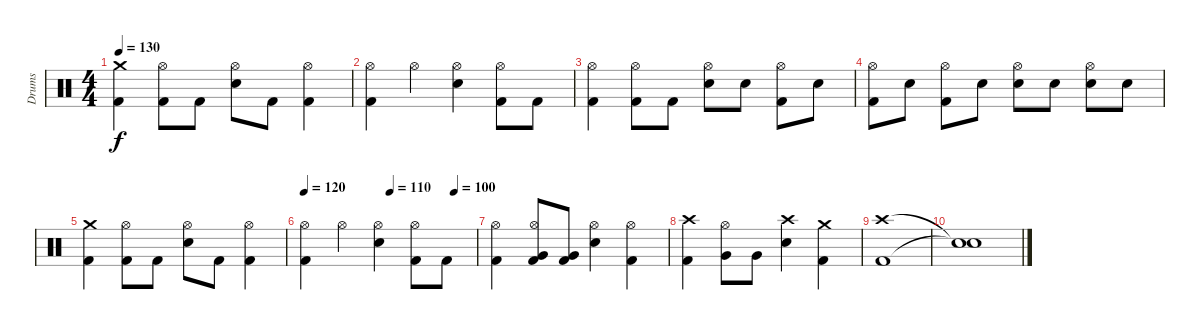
\track ("Drums" "Drums") {instrument percussion}
\staff {score}
\articulation defaults
\ts (4 4)
\tempo 130
\clef neutral
\ks c
("Crash medium (hit)" "Kick (hit) 2").4{dy f} ("Hi-Hat (open)" "Kick (hit) 2").8 "Kick (hit) 2".8 ("Hi-Hat (open)" "Electric Snare (hit)").8 "Kick (hit) 2".8 ("Hi-Hat (open)" "Kick (hit) 2").4 |
("Hi-Hat (open)" "Kick (hit) 2").4 "Hi-Hat (open)".4 ("Hi-Hat (open)" "Electric Snare (hit)").4 ("Hi-Hat (open)" "Kick (hit) 2").8 "Kick (hit) 2".8 |
("Hi-Hat (open)" "Kick (hit) 2").4 ("Hi-Hat (open)" "Kick (hit) 2").8 "Kick (hit) 2".8 ("Hi-Hat (open)" "Electric Snare (hit)").8 "Electric Snare (hit)".8 ("Hi-Hat (open)" "Kick (hit) 2").8 "Electric Snare (hit)".8 |
("Hi-Hat (open)" "Kick (hit) 2").8 "Electric Snare (hit)".8 ("Hi-Hat (open)" "Kick (hit) 2").8 "Electric Snare (hit)".8 ("Hi-Hat (open)" "Electric Snare (hit)").8 "Electric Snare (hit)".8 ("Hi-Hat (open)" "Electric Snare (hit)").8 "Electric Snare (hit)".8 |
("Crash medium (hit)" "Kick (hit) 2").4 ("Hi-Hat (open)" "Kick (hit) 2").8 "Kick (hit) 2".8 ("Hi-Hat (open)" "Electric Snare (hit)").8 "Kick (hit) 2".8 ("Hi-Hat (open)" "Kick (hit) 2").4 |
\tempo 120
\tempo (110 0.5)
\tempo (100 0.875)
("Hi-Hat (open)" "Kick (hit) 2").4 "Hi-Hat (open)".4 ("Hi-Hat (open)" "Electric Snare (hit)").4 ("Hi-Hat (open)" "Kick (hit) 2").8 "Kick (hit) 2".8 |
("Hi-Hat (open)" "Kick (hit) 2").4 ("Hi-Hat (open)" "Very Low Tom (hit)" "Kick (hit) 2").8 ("Very Low Tom (hit)" "Kick (hit) 2").8 ("Hi-Hat (open)" "Electric Snare (hit)").4 ("Hi-Hat (open)" "Kick (hit) 2").4 |
("Crash high (hit)" "Kick (hit) 2").4 ("Hi-Hat (open)" "Very Low Tom (hit)").8 "Very Low Tom (hit)".8 ("Crash high (hit)" "Electric Snare (hit)").4 ("Crash medium (hit)" "Kick (hit) 2").4 |
("Crash high (hit)" "Kick (hit) 2").1{volume 11} |
("Snare (hit)"{t} "Snare (hit)"{t}).1{volume 0}
